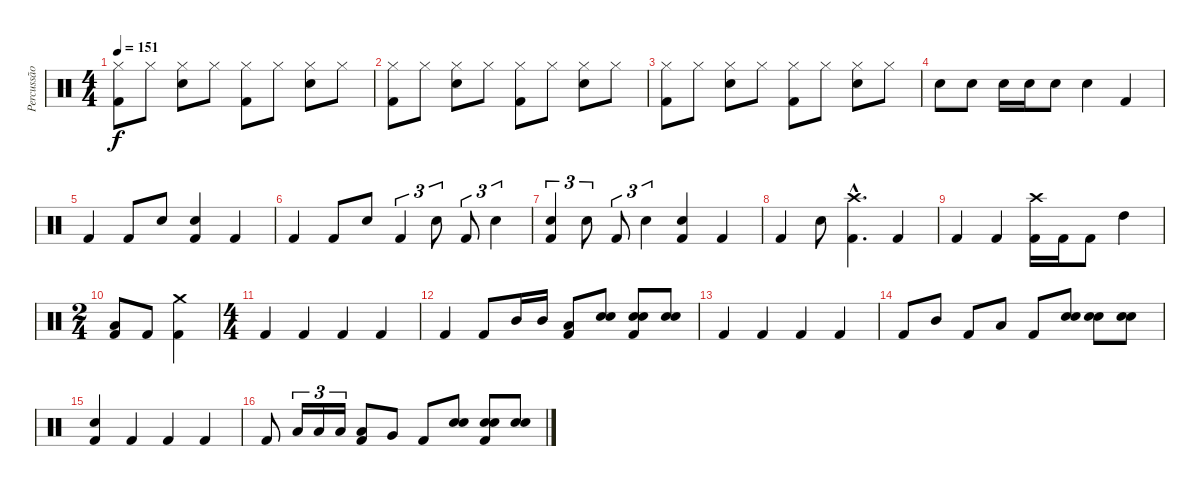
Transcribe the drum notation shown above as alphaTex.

\track ("Percussão" "Percussão") {instrument percussion}
\staff {score}
\articulation defaults
\ts (4 4)
\tempo 151
\clef neutral
\ks c
("Kick (hit) 2" "Hi-Hat (closed)").8{dy f} "Hi-Hat (closed)".8 ("Snare (hit) 2" "Hi-Hat (closed)").8 "Hi-Hat (closed)".8 ("Kick (hit) 2" "Hi-Hat (closed)").8 "Hi-Hat (closed)".8 ("Snare (hit) 2" "Hi-Hat (closed)").8 "Hi-Hat (closed)".8 |
("Kick (hit) 2" "Hi-Hat (closed)").8 "Hi-Hat (closed)".8 ("Snare (hit) 2" "Hi-Hat (closed)").8 "Hi-Hat (closed)".8 ("Kick (hit) 2" "Hi-Hat (closed)").8 "Hi-Hat (closed)".8 ("Snare (hit) 2" "Hi-Hat (closed)").8 "Hi-Hat (closed)".8 |
("Kick (hit) 2" "Hi-Hat (closed)").8 "Hi-Hat (closed)".8 ("Snare (hit) 2" "Hi-Hat (closed)").8 "Hi-Hat (closed)".8 ("Kick (hit) 2" "Hi-Hat (closed)").8 "Hi-Hat (closed)".8 ("Snare (hit) 2" "Hi-Hat (closed)").8 "Hi-Hat (closed)".8 |
"Snare (hit) 2".8 "Snare (hit) 2".8 "Snare (hit) 2".16 "Snare (hit) 2".16 "Snare (hit) 2".8 "Snare (hit) 2".4 "Kick (hit) 2".4 |
"Kick (hit) 2".4 "Kick (hit) 2".8 "Snare (hit) 2".8 ("Kick (hit) 2" "Snare (hit) 2").4 "Kick (hit) 2".4 |
"Kick (hit) 2".4 "Kick (hit) 2".8 "Snare (hit) 2".8 "Kick (hit) 2".4{tu (3 2)} "Snare (hit) 2".8{tu (3 2)} "Kick (hit) 2".8{tu (3 2)} "Snare (hit) 2".4{tu (3 2)} |
("Kick (hit) 2" "Snare (hit) 2").4{tu (3 2)} "Snare (hit) 2".8{tu (3 2)} "Kick (hit) 2".8{tu (3 2)} "Snare (hit) 2".4{tu (3 2)} ("Kick (hit) 2" "Snare (hit) 2").4 "Kick (hit) 2".4 |
"Kick (hit) 2".4 "Snare (hit) 2".8 ("Kick (hit) 2"{hac} "Crash high (hit)"{hac}).4{d} "Kick (hit) 2".4 |
"Kick (hit) 2".4 "Kick (hit) 2".4 ("Kick (hit) 2" "Crash high (hit)").16 "Kick (hit) 2".16 "Kick (hit) 2".8 "High Tom (hit)".4 |
\ts (2 4)
("Kick (hit) 2" "Low Tom (hit)").8 "Kick (hit) 2".8 ("Kick (hit) 2" "Crash medium (hit)").4 |
\ts (4 4)
"Kick (hit) 2".4 "Kick (hit) 2".4 "Kick (hit) 2".4 "Kick (hit) 2".4 |
"Kick (hit) 2".4 "Kick (hit) 2".8 "Mid Tom (hit)".16 "Mid Tom (hit)".16 ("Kick (hit) 2" "Low Tom (hit)").8 ("Snare (hit) 2" "Hand Clap (hit)").8 ("Kick (hit) 2" "Snare (hit) 2" "Hand Clap (hit)").8 ("Snare (hit) 2" "Hand Clap (hit)").8 |
"Kick (hit) 2".4 "Kick (hit) 2".4 "Kick (hit) 2".4 "Kick (hit) 2".4 |
"Kick (hit) 2".8 "Mid Tom (hit)".8 "Kick (hit) 2".8 "Low Tom (hit)".8 "Kick (hit) 2".8 ("Snare (hit) 2" "Hand Clap (hit)").8 ("Snare (hit) 2" "Hand Clap (hit)").8 ("Snare (hit) 2" "Hand Clap (hit)").8 |
("Kick (hit) 2" "Hand Clap (hit)").4 "Kick (hit) 2".4 "Kick (hit) 2".4 "Kick (hit) 2".4 |
"Kick (hit) 2".8 "Low Tom (hit)".16{tu (3 2)} "Low Tom (hit)".16{tu (3 2)} "Low Tom (hit)".16{tu (3 2)} ("Kick (hit) 2" "Low Tom (hit)").8 "Very Low Tom (hit)".8 "Kick (hit) 2".8 ("Snare (hit) 2" "Hand Clap (hit)").8 ("Kick (hit) 2" "Snare (hit) 2" "Hand Clap (hit)").8 ("Snare (hit) 2" "Hand Clap (hit)").8
